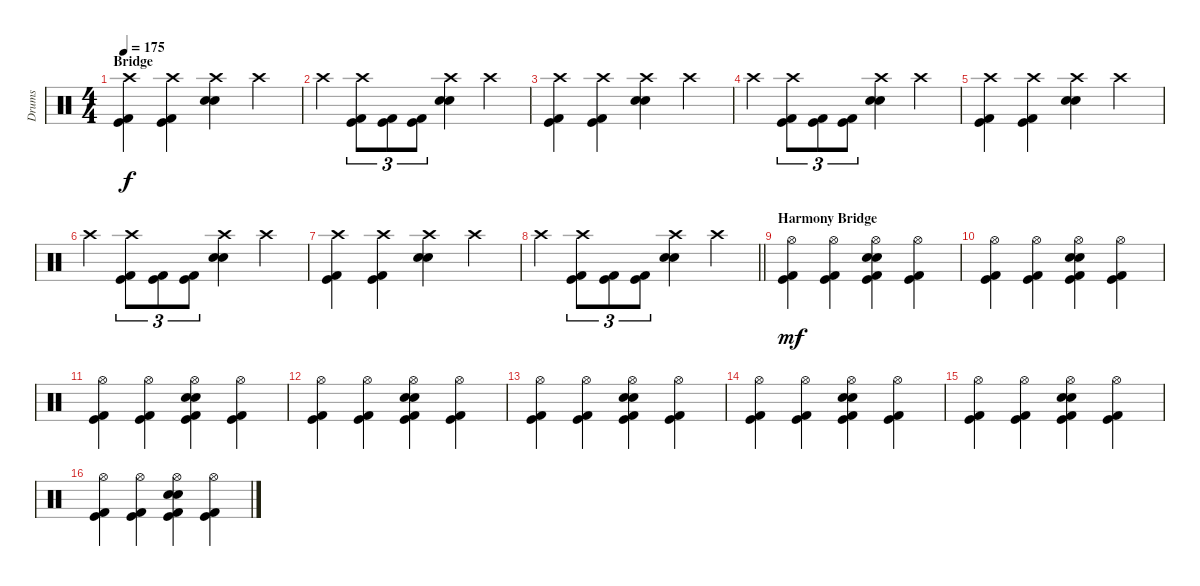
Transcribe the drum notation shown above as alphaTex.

\track ("Drums" "Drums") {instrument percussion}
\staff {score}
\articulation defaults
\ts (4 4)
\section ("" "Bridge")
\tempo 175
\clef neutral
\ks c
("Crash high (hit)" "Kick (hit) 2" "Kick (hit)").4{dy f} ("Crash high (hit)" "Kick (hit) 2" "Kick (hit)").4 ("Crash high (hit)" "Electric Snare (hit)" "Electric Snare (hit)").4 "Crash high (hit)".4 |
"Crash high (hit)".4 ("Crash high (hit)" "Kick (hit) 2" "Kick (hit)").8{tu (3 2)} ("Kick (hit) 2" "Kick (hit)").8{tu (3 2)} ("Kick (hit) 2" "Kick (hit)").8{tu (3 2)} ("Crash high (hit)" "Electric Snare (hit)" "Electric Snare (hit)").4 "Crash high (hit)".4 |
("Crash high (hit)" "Kick (hit) 2" "Kick (hit)").4 ("Crash high (hit)" "Kick (hit) 2" "Kick (hit)").4 ("Crash high (hit)" "Electric Snare (hit)" "Electric Snare (hit)").4 "Crash high (hit)".4 |
"Crash high (hit)".4 ("Crash high (hit)" "Kick (hit) 2" "Kick (hit)").8{tu (3 2)} ("Kick (hit) 2" "Kick (hit)").8{tu (3 2)} ("Kick (hit) 2" "Kick (hit)").8{tu (3 2)} ("Crash high (hit)" "Electric Snare (hit)" "Electric Snare (hit)").4 "Crash high (hit)".4 |
("Crash high (hit)" "Kick (hit) 2" "Kick (hit)").4 ("Crash high (hit)" "Kick (hit) 2" "Kick (hit)").4 ("Crash high (hit)" "Electric Snare (hit)" "Electric Snare (hit)").4 "Crash high (hit)".4 |
"Crash high (hit)".4 ("Crash high (hit)" "Kick (hit) 2" "Kick (hit)").8{tu (3 2)} ("Kick (hit) 2" "Kick (hit)").8{tu (3 2)} ("Kick (hit) 2" "Kick (hit)").8{tu (3 2)} ("Crash high (hit)" "Electric Snare (hit)" "Electric Snare (hit)").4 "Crash high (hit)".4 |
("Crash high (hit)" "Kick (hit) 2" "Kick (hit)").4 ("Crash high (hit)" "Kick (hit) 2" "Kick (hit)").4 ("Crash high (hit)" "Electric Snare (hit)" "Electric Snare (hit)").4 "Crash high (hit)".4 |
\barLineRight lightlight "Crash high (hit)".4
("Crash high (hit)" "Kick (hit) 2" "Kick (hit)").8{tu (3 2)} ("Kick (hit) 2" "Kick (hit)").8{tu (3 2)} ("Kick (hit) 2" "Kick (hit)").8{tu (3 2)} ("Crash high (hit)" "Electric Snare (hit)" "Electric Snare (hit)").4 "Crash high (hit)".4 |
\section ("" "Harmony Bridge")
("Hi-Hat (open)" "Kick (hit) 2" "Kick (hit)").4{dy mf} ("Hi-Hat (open)" "Kick (hit) 2" "Kick (hit)").4 ("Hi-Hat (open)" "Electric Snare (hit)" "Electric Snare (hit)" "Kick (hit) 2" "Kick (hit)").4 ("Hi-Hat (open)" "Kick (hit) 2" "Kick (hit)").4 |
("Hi-Hat (open)" "Kick (hit) 2" "Kick (hit)").4 ("Hi-Hat (open)" "Kick (hit) 2" "Kick (hit)").4 ("Hi-Hat (open)" "Electric Snare (hit)" "Electric Snare (hit)" "Kick (hit) 2" "Kick (hit)").4 ("Hi-Hat (open)" "Kick (hit) 2" "Kick (hit)").4 |
("Hi-Hat (open)" "Kick (hit) 2" "Kick (hit)").4 ("Hi-Hat (open)" "Kick (hit) 2" "Kick (hit)").4 ("Hi-Hat (open)" "Electric Snare (hit)" "Electric Snare (hit)" "Kick (hit) 2" "Kick (hit)").4 ("Hi-Hat (open)" "Kick (hit) 2" "Kick (hit)").4 |
("Hi-Hat (open)" "Kick (hit) 2" "Kick (hit)").4 ("Hi-Hat (open)" "Kick (hit) 2" "Kick (hit)").4 ("Hi-Hat (open)" "Electric Snare (hit)" "Electric Snare (hit)" "Kick (hit) 2" "Kick (hit)").4 ("Hi-Hat (open)" "Kick (hit) 2" "Kick (hit)").4 |
("Hi-Hat (open)" "Kick (hit) 2" "Kick (hit)").4 ("Hi-Hat (open)" "Kick (hit) 2" "Kick (hit)").4 ("Hi-Hat (open)" "Electric Snare (hit)" "Electric Snare (hit)" "Kick (hit) 2" "Kick (hit)").4 ("Hi-Hat (open)" "Kick (hit) 2" "Kick (hit)").4 |
("Hi-Hat (open)" "Kick (hit) 2" "Kick (hit)").4 ("Hi-Hat (open)" "Kick (hit) 2" "Kick (hit)").4 ("Hi-Hat (open)" "Electric Snare (hit)" "Electric Snare (hit)" "Kick (hit) 2" "Kick (hit)").4 ("Hi-Hat (open)" "Kick (hit) 2" "Kick (hit)").4 |
("Hi-Hat (open)" "Kick (hit) 2" "Kick (hit)").4 ("Hi-Hat (open)" "Kick (hit) 2" "Kick (hit)").4 ("Hi-Hat (open)" "Electric Snare (hit)" "Electric Snare (hit)" "Kick (hit) 2" "Kick (hit)").4 ("Hi-Hat (open)" "Kick (hit) 2" "Kick (hit)").4 |
("Hi-Hat (open)" "Kick (hit) 2" "Kick (hit)").4 ("Hi-Hat (open)" "Kick (hit) 2" "Kick (hit)").4 ("Hi-Hat (open)" "Electric Snare (hit)" "Electric Snare (hit)" "Kick (hit) 2" "Kick (hit)").4 ("Hi-Hat (open)" "Kick (hit) 2" "Kick (hit)").4
